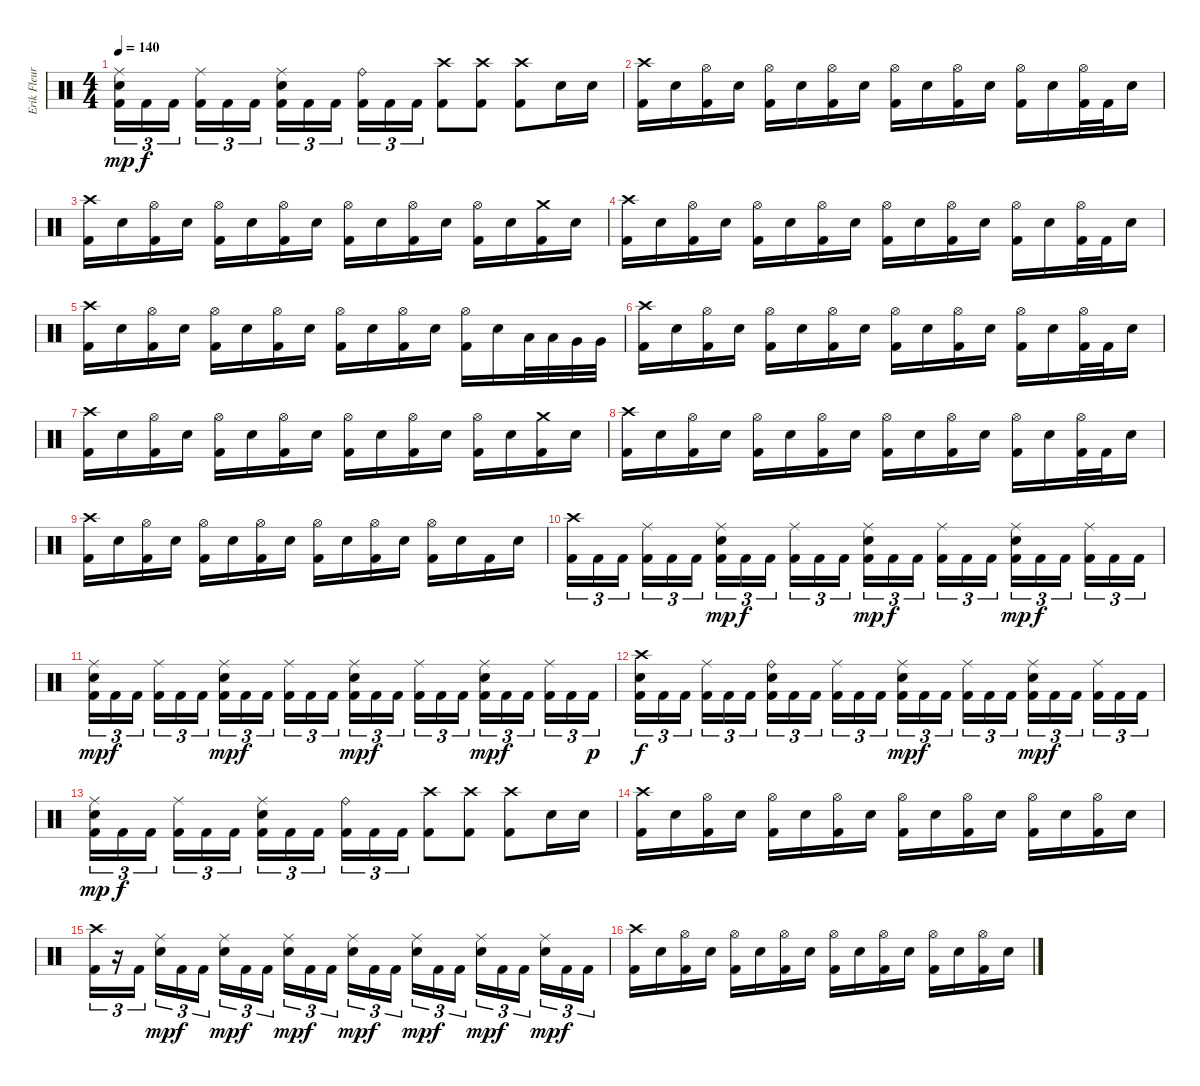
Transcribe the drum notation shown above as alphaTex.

\track ("Erik Fleuren" "Erik Fleur") {instrument percussion}
\staff {score}
\articulation defaults
\ts (4 4)
\tempo 140
\clef neutral
\ks c
("Ride (middle)" "Electric Snare (hit)" "Kick (hit) 2").16{tu (3 2) dy mp} "Kick (hit) 2".16{tu (3 2) dy f} "Kick (hit) 2".16{tu (3 2) beam splitsecondary} ("Ride (middle)" "Kick (hit) 2").16{tu (3 2)} "Kick (hit) 2".16{tu (3 2)} "Kick (hit) 2".16{tu (3 2)} ("Ride (middle)" "Electric Snare (hit)" "Kick (hit) 2").16{tu (3 2)} "Kick (hit) 2".16{tu (3 2)} "Kick (hit) 2".16{tu (3 2) beam splitsecondary} ("Ride (bell)" "Kick (hit) 2").16{tu (3 2)} "Kick (hit) 2".16{tu (3 2)} "Kick (hit) 2".16{tu (3 2)} ("Crash high (hit)" "Kick (hit) 2").8 ("Crash high (hit)" "Kick (hit) 2").8 ("Crash high (hit)" "Kick (hit) 2").8 "Electric Snare (hit)".16 "Electric Snare (hit)".16 |
("Crash high (hit)" "Kick (hit) 2").16 "Electric Snare (hit)".16 ("Hi-Hat (open)" "Kick (hit) 2").16 "Electric Snare (hit)".16 ("Hi-Hat (open)" "Kick (hit) 2").16 "Electric Snare (hit)".16 ("Hi-Hat (open)" "Kick (hit) 2").16 "Electric Snare (hit)".16 ("Hi-Hat (open)" "Kick (hit) 2").16 "Electric Snare (hit)".16 ("Hi-Hat (open)" "Kick (hit) 2").16 "Electric Snare (hit)".16 ("Hi-Hat (open)" "Kick (hit) 2").16 "Electric Snare (hit)".16 ("Hi-Hat (open)" "Kick (hit) 2").32 "Kick (hit) 2".32 "Electric Snare (hit)".16 |
("Crash high (hit)" "Kick (hit) 2").16 "Electric Snare (hit)".16 ("Hi-Hat (open)" "Kick (hit) 2").16 "Electric Snare (hit)".16 ("Hi-Hat (open)" "Kick (hit) 2").16 "Electric Snare (hit)".16 ("Hi-Hat (open)" "Kick (hit) 2").16 "Electric Snare (hit)".16 ("Hi-Hat (open)" "Kick (hit) 2").16 "Electric Snare (hit)".16 ("Hi-Hat (open)" "Kick (hit) 2").16 "Electric Snare (hit)".16 ("Hi-Hat (open)" "Kick (hit) 2").16 "Electric Snare (hit)".16 ("Crash medium (hit)" "Kick (hit) 2").16 "Electric Snare (hit)".16 |
("Crash high (hit)" "Kick (hit) 2").16 "Electric Snare (hit)".16 ("Hi-Hat (open)" "Kick (hit) 2").16 "Electric Snare (hit)".16 ("Hi-Hat (open)" "Kick (hit) 2").16 "Electric Snare (hit)".16 ("Hi-Hat (open)" "Kick (hit) 2").16 "Electric Snare (hit)".16 ("Hi-Hat (open)" "Kick (hit) 2").16 "Electric Snare (hit)".16 ("Hi-Hat (open)" "Kick (hit) 2").16 "Electric Snare (hit)".16 ("Hi-Hat (open)" "Kick (hit) 2").16 "Electric Snare (hit)".16 ("Hi-Hat (open)" "Kick (hit) 2").32 "Kick (hit) 2".32 "Electric Snare (hit)".16 |
("Crash high (hit)" "Kick (hit) 2").16 "Electric Snare (hit)".16 ("Hi-Hat (open)" "Kick (hit) 2").16 "Electric Snare (hit)".16 ("Hi-Hat (open)" "Kick (hit) 2").16 "Electric Snare (hit)".16 ("Hi-Hat (open)" "Kick (hit) 2").16 "Electric Snare (hit)".16 ("Hi-Hat (open)" "Kick (hit) 2").16 "Electric Snare (hit)".16 ("Hi-Hat (open)" "Kick (hit) 2").16 "Electric Snare (hit)".16 ("Hi-Hat (open)" "Kick (hit) 2").16 "Electric Snare (hit)".16 "Low Tom (hit)".32 "Low Tom (hit)".32 "Very Low Tom (hit)".32 "Very Low Tom (hit)".32 |
("Crash high (hit)" "Kick (hit) 2").16 "Electric Snare (hit)".16 ("Hi-Hat (open)" "Kick (hit) 2").16 "Electric Snare (hit)".16 ("Hi-Hat (open)" "Kick (hit) 2").16 "Electric Snare (hit)".16 ("Hi-Hat (open)" "Kick (hit) 2").16 "Electric Snare (hit)".16 ("Hi-Hat (open)" "Kick (hit) 2").16 "Electric Snare (hit)".16 ("Hi-Hat (open)" "Kick (hit) 2").16 "Electric Snare (hit)".16 ("Hi-Hat (open)" "Kick (hit) 2").16 "Electric Snare (hit)".16 ("Hi-Hat (open)" "Kick (hit) 2").32 "Kick (hit) 2".32 "Electric Snare (hit)".16 |
("Crash high (hit)" "Kick (hit) 2").16 "Electric Snare (hit)".16 ("Hi-Hat (open)" "Kick (hit) 2").16 "Electric Snare (hit)".16 ("Hi-Hat (open)" "Kick (hit) 2").16 "Electric Snare (hit)".16 ("Hi-Hat (open)" "Kick (hit) 2").16 "Electric Snare (hit)".16 ("Hi-Hat (open)" "Kick (hit) 2").16 "Electric Snare (hit)".16 ("Hi-Hat (open)" "Kick (hit) 2").16 "Electric Snare (hit)".16 ("Hi-Hat (open)" "Kick (hit) 2").16 "Electric Snare (hit)".16 ("Crash medium (hit)" "Kick (hit) 2").16 "Electric Snare (hit)".16 |
("Crash high (hit)" "Kick (hit) 2").16 "Electric Snare (hit)".16 ("Hi-Hat (open)" "Kick (hit) 2").16 "Electric Snare (hit)".16 ("Hi-Hat (open)" "Kick (hit) 2").16 "Electric Snare (hit)".16 ("Hi-Hat (open)" "Kick (hit) 2").16 "Electric Snare (hit)".16 ("Hi-Hat (open)" "Kick (hit) 2").16 "Electric Snare (hit)".16 ("Hi-Hat (open)" "Kick (hit) 2").16 "Electric Snare (hit)".16 ("Hi-Hat (open)" "Kick (hit) 2").16 "Electric Snare (hit)".16 ("Hi-Hat (open)" "Kick (hit) 2").32 "Kick (hit) 2".32 "Electric Snare (hit)".16 |
("Crash high (hit)" "Kick (hit) 2").16 "Electric Snare (hit)".16 ("Hi-Hat (open)" "Kick (hit) 2").16 "Electric Snare (hit)".16 ("Hi-Hat (open)" "Kick (hit) 2").16 "Electric Snare (hit)".16 ("Hi-Hat (open)" "Kick (hit) 2").16 "Electric Snare (hit)".16 ("Hi-Hat (open)" "Kick (hit) 2").16 "Electric Snare (hit)".16 ("Hi-Hat (open)" "Kick (hit) 2").16 "Electric Snare (hit)".16 ("Hi-Hat (open)" "Kick (hit) 2").16 "Electric Snare (hit)".16 "Kick (hit) 2".16 "Electric Snare (hit)".16 |
("Crash high (hit)" "Kick (hit) 2").16{tu (3 2)} "Kick (hit) 2".16{tu (3 2)} "Kick (hit) 2".16{tu (3 2) beam splitsecondary} ("Ride (middle)" "Kick (hit) 2").16{tu (3 2)} "Kick (hit) 2".16{tu (3 2)} "Kick (hit) 2".16{tu (3 2)} ("Ride (middle)" "Electric Snare (hit)" "Kick (hit) 2").16{tu (3 2) dy mp} "Kick (hit) 2".16{tu (3 2) dy f} "Kick (hit) 2".16{tu (3 2) beam splitsecondary} ("Ride (middle)" "Kick (hit) 2").16{tu (3 2)} "Kick (hit) 2".16{tu (3 2)} "Kick (hit) 2".16{tu (3 2)} ("Ride (middle)" "Electric Snare (hit)" "Kick (hit) 2").16{tu (3 2) dy mp} "Kick (hit) 2".16{tu (3 2) dy f} "Kick (hit) 2".16{tu (3 2) beam splitsecondary} ("Ride (middle)" "Kick (hit) 2").16{tu (3 2)} "Kick (hit) 2".16{tu (3 2)} "Kick (hit) 2".16{tu (3 2)} ("Ride (middle)" "Electric Snare (hit)" "Kick (hit) 2").16{tu (3 2) dy mp} "Kick (hit) 2".16{tu (3 2) dy f} "Kick (hit) 2".16{tu (3 2) beam splitsecondary} ("Ride (middle)" "Kick (hit) 2").16{tu (3 2)} "Kick (hit) 2".16{tu (3 2)} "Kick (hit) 2".16{tu (3 2)} |
("Ride (middle)" "Electric Snare (hit)" "Kick (hit) 2").16{tu (3 2) dy mp} "Kick (hit) 2".16{tu (3 2) dy f} "Kick (hit) 2".16{tu (3 2) beam splitsecondary} ("Ride (middle)" "Kick (hit) 2").16{tu (3 2)} "Kick (hit) 2".16{tu (3 2)} "Kick (hit) 2".16{tu (3 2)} ("Ride (middle)" "Electric Snare (hit)" "Kick (hit) 2").16{tu (3 2) dy mp} "Kick (hit) 2".16{tu (3 2) dy f} "Kick (hit) 2".16{tu (3 2) beam splitsecondary} ("Ride (middle)" "Kick (hit) 2").16{tu (3 2)} "Kick (hit) 2".16{tu (3 2)} "Kick (hit) 2".16{tu (3 2)} ("Ride (middle)" "Electric Snare (hit)" "Kick (hit) 2").16{tu (3 2) dy mp} "Kick (hit) 2".16{tu (3 2) dy f} "Kick (hit) 2".16{tu (3 2) beam splitsecondary} ("Ride (middle)" "Kick (hit) 2").16{tu (3 2)} "Kick (hit) 2".16{tu (3 2)} "Kick (hit) 2".16{tu (3 2)} ("Ride (middle)" "Electric Snare (hit)" "Kick (hit) 2").16{tu (3 2) dy mp} "Kick (hit) 2".16{tu (3 2) dy f} "Kick (hit) 2".16{tu (3 2) beam splitsecondary} ("Ride (middle)" "Kick (hit) 2").16{tu (3 2)} "Kick (hit) 2".16{tu (3 2)} "Kick (hit) 2".16{tu (3 2) dy p} |
("Crash high (hit)" "Electric Snare (hit)" "Kick (hit) 2").16{tu (3 2) dy f} "Kick (hit) 2".16{tu (3 2)} "Kick (hit) 2".16{tu (3 2) beam splitsecondary} ("Ride (middle)" "Kick (hit) 2").16{tu (3 2)} "Kick (hit) 2".16{tu (3 2)} "Kick (hit) 2".16{tu (3 2)} ("Ride (bell)" "Electric Snare (hit)" "Kick (hit) 2").16{tu (3 2)} "Kick (hit) 2".16{tu (3 2)} "Kick (hit) 2".16{tu (3 2) beam splitsecondary} ("Ride (middle)" "Kick (hit) 2").16{tu (3 2)} "Kick (hit) 2".16{tu (3 2)} "Kick (hit) 2".16{tu (3 2)} ("Ride (middle)" "Electric Snare (hit)" "Kick (hit) 2").16{tu (3 2) dy mp} "Kick (hit) 2".16{tu (3 2) dy f} "Kick (hit) 2".16{tu (3 2) beam splitsecondary} ("Ride (middle)" "Kick (hit) 2").16{tu (3 2)} "Kick (hit) 2".16{tu (3 2)} "Kick (hit) 2".16{tu (3 2)} ("Ride (middle)" "Electric Snare (hit)" "Kick (hit) 2").16{tu (3 2) dy mp} "Kick (hit) 2".16{tu (3 2) dy f} "Kick (hit) 2".16{tu (3 2) beam splitsecondary} ("Ride (middle)" "Kick (hit) 2").16{tu (3 2)} "Kick (hit) 2".16{tu (3 2)} "Kick (hit) 2".16{tu (3 2)} |
("Ride (middle)" "Electric Snare (hit)" "Kick (hit) 2").16{tu (3 2) dy mp} "Kick (hit) 2".16{tu (3 2) dy f} "Kick (hit) 2".16{tu (3 2) beam splitsecondary} ("Ride (middle)" "Kick (hit) 2").16{tu (3 2)} "Kick (hit) 2".16{tu (3 2)} "Kick (hit) 2".16{tu (3 2)} ("Ride (middle)" "Electric Snare (hit)" "Kick (hit) 2").16{tu (3 2)} "Kick (hit) 2".16{tu (3 2)} "Kick (hit) 2".16{tu (3 2) beam splitsecondary} ("Ride (bell)" "Kick (hit) 2").16{tu (3 2)} "Kick (hit) 2".16{tu (3 2)} "Kick (hit) 2".16{tu (3 2)} ("Crash high (hit)" "Kick (hit) 2").8 ("Crash high (hit)" "Kick (hit) 2").8 ("Crash high (hit)" "Kick (hit) 2").8 "Electric Snare (hit)".16 "Electric Snare (hit)".16 |
("Crash high (hit)" "Kick (hit) 2").16 "Electric Snare (hit)".16 ("Hi-Hat (open)" "Kick (hit) 2").16 "Electric Snare (hit)".16 ("Hi-Hat (open)" "Kick (hit) 2").16 "Electric Snare (hit)".16 ("Hi-Hat (open)" "Kick (hit) 2").16 "Electric Snare (hit)".16 ("Hi-Hat (open)" "Kick (hit) 2").16 "Electric Snare (hit)".16 ("Hi-Hat (open)" "Kick (hit) 2").16 "Electric Snare (hit)".16 ("Hi-Hat (open)" "Kick (hit) 2").16 "Electric Snare (hit)".16 ("Hi-Hat (open)" "Kick (hit) 2").16 "Electric Snare (hit)".16 |
("Crash high (hit)" "Kick (hit) 2").16{tu (3 2)} r.16{tu (3 2)} "Kick (hit) 2".16{tu (3 2) beam splitsecondary} ("Ride (middle)" "Electric Snare (hit)").16{tu (3 2) dy mp} "Kick (hit) 2".16{tu (3 2) dy f} "Kick (hit) 2".16{tu (3 2)} ("Ride (middle)" "Electric Snare (hit)").16{tu (3 2) dy mp} "Kick (hit) 2".16{tu (3 2) dy f} "Kick (hit) 2".16{tu (3 2) beam splitsecondary} ("Ride (middle)" "Electric Snare (hit)").16{tu (3 2) dy mp} "Kick (hit) 2".16{tu (3 2) dy f} "Kick (hit) 2".16{tu (3 2)} ("Ride (middle)" "Electric Snare (hit)").16{tu (3 2) dy mp} "Kick (hit) 2".16{tu (3 2) dy f} "Kick (hit) 2".16{tu (3 2) beam splitsecondary} ("Ride (middle)" "Electric Snare (hit)").16{tu (3 2) dy mp} "Kick (hit) 2".16{tu (3 2) dy f} "Kick (hit) 2".16{tu (3 2)} ("Ride (middle)" "Electric Snare (hit)").16{tu (3 2) dy mp} "Kick (hit) 2".16{tu (3 2) dy f} "Kick (hit) 2".16{tu (3 2) beam splitsecondary} ("Ride (middle)" "Electric Snare (hit)").16{tu (3 2) dy mp} "Kick (hit) 2".16{tu (3 2) dy f} "Kick (hit) 2".16{tu (3 2)} |
("Crash high (hit)" "Kick (hit) 2").16 "Electric Snare (hit)".16 ("Hi-Hat (open)" "Kick (hit) 2").16 "Electric Snare (hit)".16 ("Hi-Hat (open)" "Kick (hit) 2").16 "Electric Snare (hit)".16 ("Hi-Hat (open)" "Kick (hit) 2").16 "Electric Snare (hit)".16 ("Hi-Hat (open)" "Kick (hit) 2").16 "Electric Snare (hit)".16 ("Hi-Hat (open)" "Kick (hit) 2").16 "Electric Snare (hit)".16 ("Hi-Hat (open)" "Kick (hit) 2").16 "Electric Snare (hit)".16 ("Hi-Hat (open)" "Kick (hit) 2").16 "Electric Snare (hit)".16
